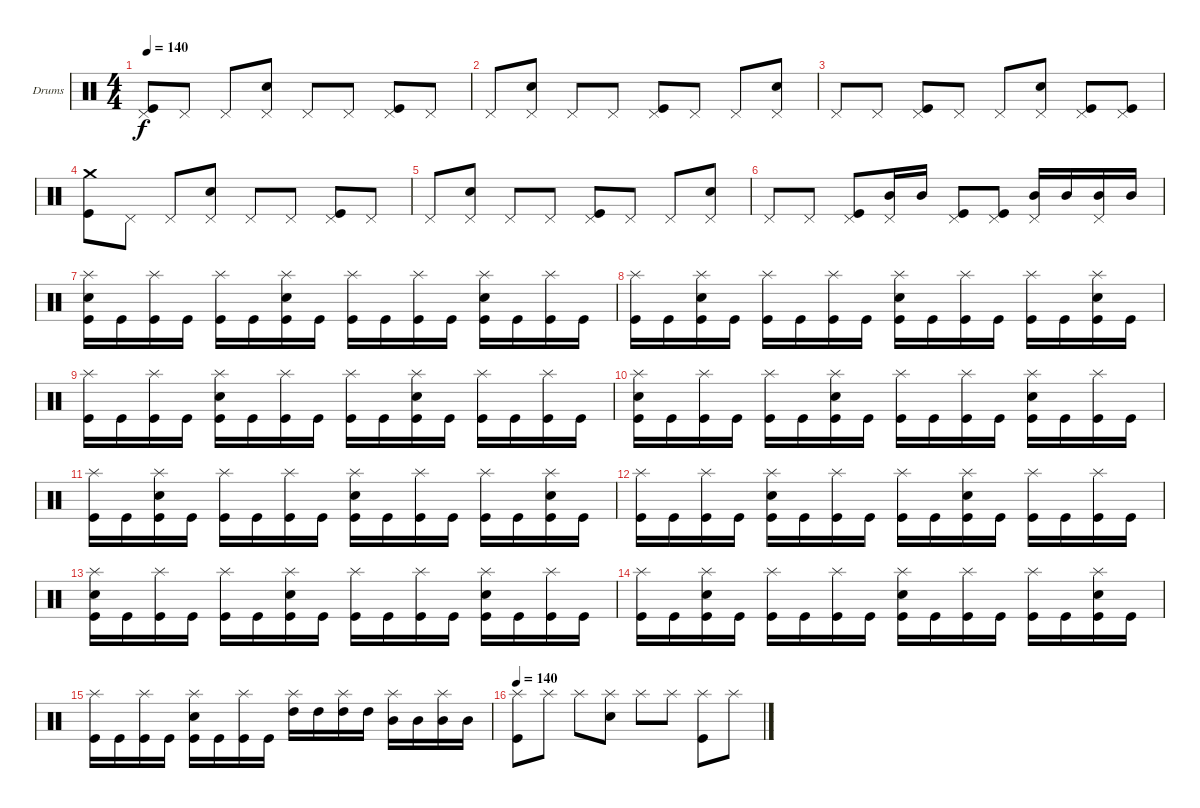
\bracketExtendMode groupsimilarinstruments
\firstSystemTrackNameOrientation horizontal
\otherSystemsTrackNameOrientation horizontal
\track ("Drumkit" "Drums") {instrument percussion}
\staff {score}
\articulation defaults
\ts (4 4)
\tempo 140
\clef neutral
\ks c
("Kick (hit)" "Pedal Hi-Hat (hit)").8{dy f} "Pedal Hi-Hat (hit)".8 "Pedal Hi-Hat (hit)".8 ("Snare (hit) 2" "Pedal Hi-Hat (hit)").8 "Pedal Hi-Hat (hit)".8 "Pedal Hi-Hat (hit)".8 ("Kick (hit)" "Pedal Hi-Hat (hit)").8 "Pedal Hi-Hat (hit)".8 |
"Pedal Hi-Hat (hit)".8 ("Snare (hit) 2" "Pedal Hi-Hat (hit)").8 "Pedal Hi-Hat (hit)".8 "Pedal Hi-Hat (hit)".8 ("Kick (hit)" "Pedal Hi-Hat (hit)").8 "Pedal Hi-Hat (hit)".8 "Pedal Hi-Hat (hit)".8 ("Snare (hit) 2" "Pedal Hi-Hat (hit)").8 |
"Pedal Hi-Hat (hit)".8 "Pedal Hi-Hat (hit)".8 ("Kick (hit)" "Pedal Hi-Hat (hit)").8 "Pedal Hi-Hat (hit)".8 "Pedal Hi-Hat (hit)".8 ("Snare (hit) 2" "Pedal Hi-Hat (hit)").8 ("Kick (hit)" "Pedal Hi-Hat (hit)").8 ("Kick (hit)" "Pedal Hi-Hat (hit)").8 |
("Kick (hit)" "Crash medium (hit)").8 "Pedal Hi-Hat (hit)".8 "Pedal Hi-Hat (hit)".8 ("Snare (hit) 2" "Pedal Hi-Hat (hit)").8 "Pedal Hi-Hat (hit)".8 "Pedal Hi-Hat (hit)".8 ("Kick (hit)" "Pedal Hi-Hat (hit)").8 "Pedal Hi-Hat (hit)".8 |
"Pedal Hi-Hat (hit)".8 ("Snare (hit) 2" "Pedal Hi-Hat (hit)").8 "Pedal Hi-Hat (hit)".8 "Pedal Hi-Hat (hit)".8 ("Kick (hit)" "Pedal Hi-Hat (hit)").8 "Pedal Hi-Hat (hit)".8 "Pedal Hi-Hat (hit)".8 ("Snare (hit) 2" "Pedal Hi-Hat (hit)").8 |
"Pedal Hi-Hat (hit)".8 "Pedal Hi-Hat (hit)".8 ("Kick (hit)" "Pedal Hi-Hat (hit)").8 ("Mid Tom (hit)" "Pedal Hi-Hat (hit)").16 "Mid Tom (hit)".16 ("Kick (hit)" "Pedal Hi-Hat (hit)").8 ("Kick (hit)" "Pedal Hi-Hat (hit)").8 ("Mid Tom (hit)" "Pedal Hi-Hat (hit)").16 "Mid Tom (hit)".16 ("Mid Tom (hit)" "Pedal Hi-Hat (hit)").16 "Mid Tom (hit)".16 |
("Kick (hit)" "Snare (hit) 2" "Splash (hit)").16 "Kick (hit)".16 ("Kick (hit)" "Splash (hit)").16 "Kick (hit)".16 ("Kick (hit)" "Splash (hit)").16 "Kick (hit)".16 ("Kick (hit)" "Snare (hit) 2" "Splash (hit)").16 "Kick (hit)".16 ("Kick (hit)" "Splash (hit)").16 "Kick (hit)".16 ("Kick (hit)" "Splash (hit)").16 "Kick (hit)".16 ("Kick (hit)" "Snare (hit) 2" "Splash (hit)").16 "Kick (hit)".16 ("Kick (hit)" "Splash (hit)").16 "Kick (hit)".16 |
("Kick (hit)" "Splash (hit)").16 "Kick (hit)".16 ("Kick (hit)" "Snare (hit) 2" "Splash (hit)").16 "Kick (hit)".16 ("Kick (hit)" "Splash (hit)").16 "Kick (hit)".16 ("Kick (hit)" "Splash (hit)").16 "Kick (hit)".16 ("Kick (hit)" "Snare (hit) 2" "Splash (hit)").16 "Kick (hit)".16 ("Kick (hit)" "Splash (hit)").16 "Kick (hit)".16 ("Kick (hit)" "Splash (hit)").16 "Kick (hit)".16 ("Kick (hit)" "Snare (hit) 2" "Splash (hit)").16 "Kick (hit)".16 |
("Kick (hit)" "Splash (hit)").16 "Kick (hit)".16 ("Kick (hit)" "Splash (hit)").16 "Kick (hit)".16 ("Kick (hit)" "Snare (hit) 2" "Splash (hit)").16 "Kick (hit)".16 ("Kick (hit)" "Splash (hit)").16 "Kick (hit)".16 ("Kick (hit)" "Splash (hit)").16 "Kick (hit)".16 ("Kick (hit)" "Snare (hit) 2" "Splash (hit)").16 "Kick (hit)".16 ("Kick (hit)" "Splash (hit)").16 "Kick (hit)".16 ("Kick (hit)" "Splash (hit)").16 "Kick (hit)".16 |
("Kick (hit)" "Snare (hit) 2" "Splash (hit)").16 "Kick (hit)".16 ("Kick (hit)" "Splash (hit)").16 "Kick (hit)".16 ("Kick (hit)" "Splash (hit)").16 "Kick (hit)".16 ("Kick (hit)" "Snare (hit) 2" "Splash (hit)").16 "Kick (hit)".16 ("Kick (hit)" "Splash (hit)").16 "Kick (hit)".16 ("Kick (hit)" "Splash (hit)").16 "Kick (hit)".16 ("Kick (hit)" "Snare (hit) 2" "Splash (hit)").16 "Kick (hit)".16 ("Kick (hit)" "Splash (hit)").16 "Kick (hit)".16 |
("Kick (hit)" "Splash (hit)").16 "Kick (hit)".16 ("Kick (hit)" "Snare (hit) 2" "Splash (hit)").16 "Kick (hit)".16 ("Kick (hit)" "Splash (hit)").16 "Kick (hit)".16 ("Kick (hit)" "Splash (hit)").16 "Kick (hit)".16 ("Kick (hit)" "Snare (hit) 2" "Splash (hit)").16 "Kick (hit)".16 ("Kick (hit)" "Splash (hit)").16 "Kick (hit)".16 ("Kick (hit)" "Splash (hit)").16 "Kick (hit)".16 ("Kick (hit)" "Snare (hit) 2" "Splash (hit)").16 "Kick (hit)".16 |
("Kick (hit)" "Splash (hit)").16 "Kick (hit)".16 ("Kick (hit)" "Splash (hit)").16 "Kick (hit)".16 ("Kick (hit)" "Snare (hit) 2" "Splash (hit)").16 "Kick (hit)".16 ("Kick (hit)" "Splash (hit)").16 "Kick (hit)".16 ("Kick (hit)" "Splash (hit)").16 "Kick (hit)".16 ("Kick (hit)" "Snare (hit) 2" "Splash (hit)").16 "Kick (hit)".16 ("Kick (hit)" "Splash (hit)").16 "Kick (hit)".16 ("Kick (hit)" "Splash (hit)").16 "Kick (hit)".16 |
("Kick (hit)" "Snare (hit) 2" "Splash (hit)").16 "Kick (hit)".16 ("Kick (hit)" "Splash (hit)").16 "Kick (hit)".16 ("Kick (hit)" "Splash (hit)").16 "Kick (hit)".16 ("Kick (hit)" "Snare (hit) 2" "Splash (hit)").16 "Kick (hit)".16 ("Kick (hit)" "Splash (hit)").16 "Kick (hit)".16 ("Kick (hit)" "Splash (hit)").16 "Kick (hit)".16 ("Kick (hit)" "Snare (hit) 2" "Splash (hit)").16 "Kick (hit)".16 ("Kick (hit)" "Splash (hit)").16 "Kick (hit)".16 |
("Kick (hit)" "Splash (hit)").16 "Kick (hit)".16 ("Kick (hit)" "Snare (hit) 2" "Splash (hit)").16 "Kick (hit)".16 ("Kick (hit)" "Splash (hit)").16 "Kick (hit)".16 ("Kick (hit)" "Splash (hit)").16 "Kick (hit)".16 ("Kick (hit)" "Snare (hit) 2" "Splash (hit)").16 "Kick (hit)".16 ("Kick (hit)" "Splash (hit)").16 "Kick (hit)".16 ("Kick (hit)" "Splash (hit)").16 "Kick (hit)".16 ("Kick (hit)" "Snare (hit) 2" "Splash (hit)").16 "Kick (hit)".16 |
("Kick (hit)" "Splash (hit)").16 "Kick (hit)".16 ("Kick (hit)" "Splash (hit)").16 "Kick (hit)".16 ("Kick (hit)" "Snare (hit) 2" "Splash (hit)").16 "Kick (hit)".16 ("Kick (hit)" "Splash (hit)").16 "Kick (hit)".16 ("High Tom (hit)" "Splash (hit)").16 "High Tom (hit)".16 ("High Tom (hit)" "Splash (hit)").16 "High Tom (hit)".16 ("Mid Tom (hit)" "Splash (hit)").16 "Mid Tom (hit)".16 ("Mid Tom (hit)" "Splash (hit)").16 "Mid Tom (hit)".16 |
\tempo 140
("Kick (hit)" "Splash (hit)").8 "Splash (hit)".8 "Splash (hit)".8 ("Snare (hit) 2" "Splash (hit)").8 "Splash (hit)".8 "Splash (hit)".8 ("Kick (hit)" "Splash (hit)").8 "Splash (hit)".8
